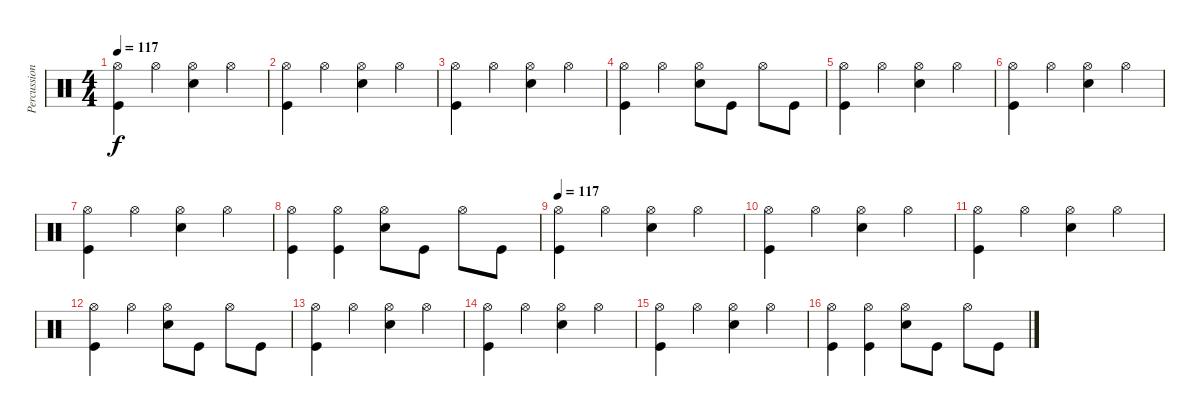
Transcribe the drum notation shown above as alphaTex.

\track ("Percussion" "Percussion") {instrument percussion}
\staff {score}
\articulation defaults
\ts (4 4)
\tempo 117
\clef neutral
\ks c
("Hi-Hat (open)" "Kick (hit)").4{dy f} "Hi-Hat (open)".4 ("Hi-Hat (open)" "Electric Snare (hit)").4 "Hi-Hat (open)".4 |
("Hi-Hat (open)" "Kick (hit)").4 "Hi-Hat (open)".4 ("Hi-Hat (open)" "Electric Snare (hit)").4 "Hi-Hat (open)".4 |
("Hi-Hat (open)" "Kick (hit)").4 "Hi-Hat (open)".4 ("Hi-Hat (open)" "Electric Snare (hit)").4 "Hi-Hat (open)".4 |
("Hi-Hat (open)" "Kick (hit)").4 "Hi-Hat (open)".4 ("Hi-Hat (open)" "Electric Snare (hit)").8 "Kick (hit)".8 "Hi-Hat (open)".8 "Kick (hit)".8 |
("Hi-Hat (open)" "Kick (hit)").4 "Hi-Hat (open)".4 ("Hi-Hat (open)" "Electric Snare (hit)").4 "Hi-Hat (open)".4 |
("Hi-Hat (open)" "Kick (hit)").4 "Hi-Hat (open)".4 ("Hi-Hat (open)" "Electric Snare (hit)").4 "Hi-Hat (open)".4 |
("Hi-Hat (open)" "Kick (hit)").4 "Hi-Hat (open)".4 ("Hi-Hat (open)" "Electric Snare (hit)").4 "Hi-Hat (open)".4 |
("Hi-Hat (open)" "Kick (hit)").4 ("Hi-Hat (open)" "Kick (hit)").4 ("Hi-Hat (open)" "Electric Snare (hit)").8 "Kick (hit)".8 "Hi-Hat (open)".8 "Kick (hit)".8 |
\tempo 117
("Hi-Hat (open)" "Kick (hit)").4 "Hi-Hat (open)".4 ("Hi-Hat (open)" "Electric Snare (hit)").4 "Hi-Hat (open)".4 |
("Hi-Hat (open)" "Kick (hit)").4 "Hi-Hat (open)".4 ("Hi-Hat (open)" "Electric Snare (hit)").4 "Hi-Hat (open)".4 |
("Hi-Hat (open)" "Kick (hit)").4 "Hi-Hat (open)".4 ("Hi-Hat (open)" "Electric Snare (hit)").4 "Hi-Hat (open)".4 |
("Hi-Hat (open)" "Kick (hit)").4 "Hi-Hat (open)".4 ("Hi-Hat (open)" "Electric Snare (hit)").8 "Kick (hit)".8 "Hi-Hat (open)".8 "Kick (hit)".8 |
("Hi-Hat (open)" "Kick (hit)").4 "Hi-Hat (open)".4 ("Hi-Hat (open)" "Electric Snare (hit)").4 "Hi-Hat (open)".4 |
("Hi-Hat (open)" "Kick (hit)").4 "Hi-Hat (open)".4 ("Hi-Hat (open)" "Electric Snare (hit)").4 "Hi-Hat (open)".4 |
("Hi-Hat (open)" "Kick (hit)").4 "Hi-Hat (open)".4 ("Hi-Hat (open)" "Electric Snare (hit)").4 "Hi-Hat (open)".4 |
("Hi-Hat (open)" "Kick (hit)").4 ("Hi-Hat (open)" "Kick (hit)").4 ("Hi-Hat (open)" "Electric Snare (hit)").8 "Kick (hit)".8 "Hi-Hat (open)".8 "Kick (hit)".8
